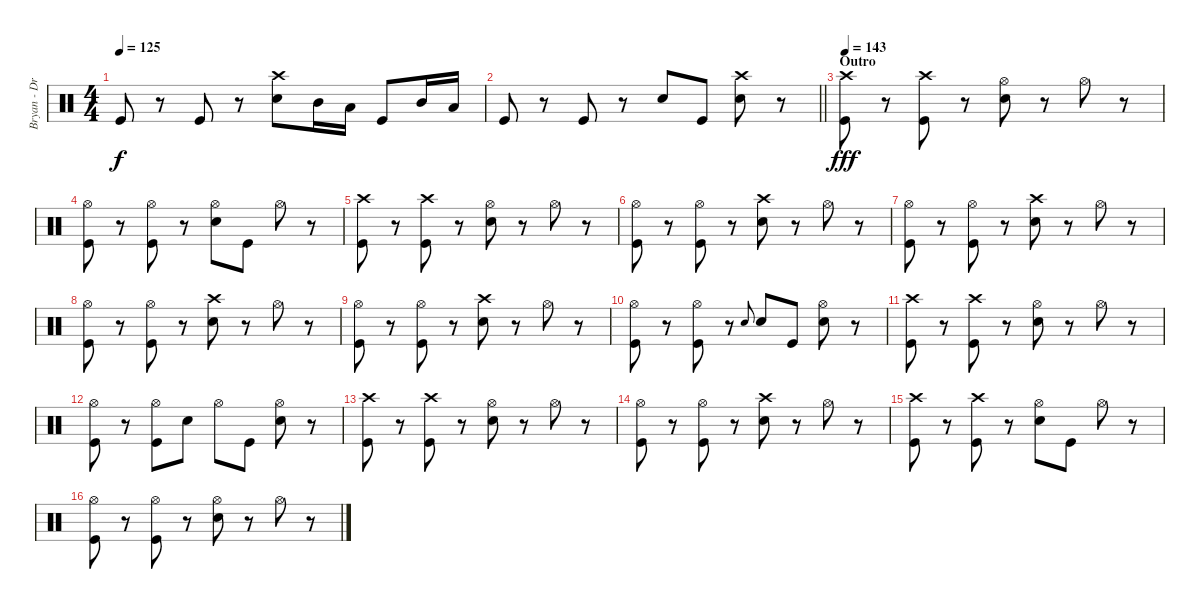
\track ("Bryan - Drums" "Bryan - Dr") {instrument percussion}
\staff {score}
\articulation defaults
\ts (4 4)
\tempo 125
\clef neutral
\ks c "Kick (hit)".8{dy f}
r.8 "Kick (hit)".8 r.8 ("Crash high (hit)" "Snare (hit) 2").8 "Mid Tom (hit)".16 "Low Tom (hit)".16 "Kick (hit)".8 "Mid Tom (hit)".16 "Low Tom (hit)".16 |
\barLineRight lightlight "Kick (hit)".8
r.8 "Kick (hit)".8 r.8 "Snare (hit) 2".8 "Kick (hit)".8 ("Crash high (hit)" "Snare (hit) 2").8 r.8 |
\section ("" "Outro")
\tempo 143
("Crash high (hit)" "Kick (hit)").8{dy fff} r.8 ("Crash high (hit)" "Kick (hit)").8 r.8 ("Hi-Hat (open)" "Snare (hit) 2").8 r.8 "Hi-Hat (open)".8 r.8 |
("Hi-Hat (open)" "Kick (hit)").8 r.8 ("Hi-Hat (open)" "Kick (hit)").8 r.8 ("Hi-Hat (open)" "Snare (hit) 2").8 "Kick (hit)".8 "Hi-Hat (open)".8 r.8 |
("Crash high (hit)" "Kick (hit)").8 r.8 ("Crash high (hit)" "Kick (hit)").8 r.8 ("Hi-Hat (open)" "Snare (hit) 2").8 r.8 "Hi-Hat (open)".8 r.8 |
("Hi-Hat (open)" "Kick (hit)").8 r.8 ("Hi-Hat (open)" "Kick (hit)").8 r.8 ("Crash high (hit)" "Snare (hit) 2").8 r.8 "Hi-Hat (open)".8 r.8 |
("Hi-Hat (open)" "Kick (hit)").8 r.8 ("Hi-Hat (open)" "Kick (hit)").8 r.8 ("Crash high (hit)" "Snare (hit) 2").8 r.8 "Hi-Hat (open)".8 r.8 |
("Hi-Hat (open)" "Kick (hit)").8 r.8 ("Hi-Hat (open)" "Kick (hit)").8 r.8 ("Crash high (hit)" "Snare (hit) 2").8 r.8 "Hi-Hat (open)".8 r.8 |
("Hi-Hat (open)" "Kick (hit)").8 r.8 ("Hi-Hat (open)" "Kick (hit)").8 r.8 ("Crash high (hit)" "Snare (hit) 2").8 r.8 "Hi-Hat (open)".8 r.8 |
("Hi-Hat (open)" "Kick (hit)").8 r.8 ("Hi-Hat (open)" "Kick (hit)").8 r.8 "Snare (hit) 2".8{gr onbeat} "Snare (hit) 2".8 "Kick (hit)".8 ("Hi-Hat (open)" "Snare (hit) 2").8 r.8 |
("Crash high (hit)" "Kick (hit)").8 r.8 ("Crash high (hit)" "Kick (hit)").8 r.8 ("Hi-Hat (open)" "Snare (hit) 2").8 r.8 "Hi-Hat (open)".8 r.8 |
("Hi-Hat (open)" "Kick (hit)").8 r.8 ("Hi-Hat (open)" "Kick (hit)").8 "Snare (hit) 2".8 "Hi-Hat (open)".8 "Kick (hit)".8 ("Hi-Hat (open)" "Snare (hit) 2").8 r.8 |
("Crash high (hit)" "Kick (hit)").8 r.8 ("Crash high (hit)" "Kick (hit)").8 r.8 ("Hi-Hat (open)" "Snare (hit) 2").8 r.8 "Hi-Hat (open)".8 r.8 |
("Hi-Hat (open)" "Kick (hit)").8 r.8 ("Hi-Hat (open)" "Kick (hit)").8 r.8 ("Crash high (hit)" "Snare (hit) 2").8 r.8 "Hi-Hat (open)".8 r.8 |
("Crash high (hit)" "Kick (hit)").8 r.8 ("Crash high (hit)" "Kick (hit)").8 r.8 ("Hi-Hat (open)" "Snare (hit) 2").8 "Kick (hit)".8 "Hi-Hat (open)".8 r.8 |
("Hi-Hat (open)" "Kick (hit)").8 r.8 ("Hi-Hat (open)" "Kick (hit)").8 r.8 ("Hi-Hat (open)" "Snare (hit) 2").8 r.8 "Hi-Hat (open)".8 r.8
